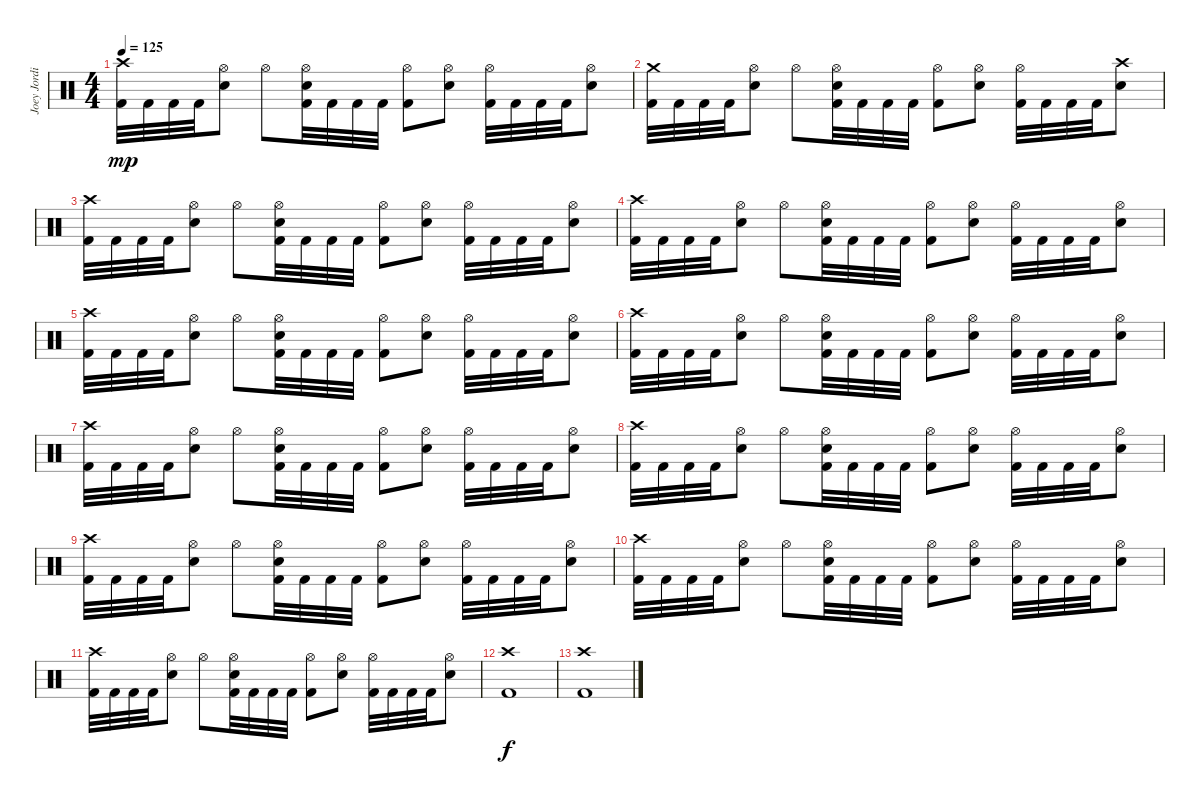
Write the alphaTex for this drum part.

\track ("Joey Jordison" "Joey Jordi") {instrument percussion}
\staff {score}
\articulation defaults
\ts (4 4)
\tempo 125
\clef neutral
\ks c
("Crash high (hit)" "Kick (hit) 2").32{dy mp} "Kick (hit) 2".32 "Kick (hit) 2".32 "Kick (hit) 2".32 ("Hi-Hat (open)" "Electric Snare (hit)").8 "Hi-Hat (open)".8 ("Hi-Hat (open)" "Electric Snare (hit)" "Kick (hit) 2").32 "Kick (hit) 2".32 "Kick (hit) 2".32 "Kick (hit) 2".32 ("Hi-Hat (open)" "Kick (hit) 2").8 ("Hi-Hat (open)" "Electric Snare (hit)").8 ("Hi-Hat (open)" "Kick (hit) 2").32 "Kick (hit) 2".32 "Kick (hit) 2".32 "Kick (hit) 2".32 ("Hi-Hat (open)" "Electric Snare (hit)").8 |
("Crash medium (hit)" "Kick (hit) 2").32 "Kick (hit) 2".32 "Kick (hit) 2".32 "Kick (hit) 2".32 ("Hi-Hat (open)" "Electric Snare (hit)").8 "Hi-Hat (open)".8 ("Hi-Hat (open)" "Electric Snare (hit)" "Kick (hit) 2").32 "Kick (hit) 2".32 "Kick (hit) 2".32 "Kick (hit) 2".32 ("Hi-Hat (open)" "Kick (hit) 2").8 ("Hi-Hat (open)" "Electric Snare (hit)").8 ("Hi-Hat (open)" "Kick (hit) 2").32 "Kick (hit) 2".32 "Kick (hit) 2".32 "Kick (hit) 2".32 ("Crash high (hit)" "Electric Snare (hit)").8 |
("Crash high (hit)" "Kick (hit) 2").32 "Kick (hit) 2".32 "Kick (hit) 2".32 "Kick (hit) 2".32 ("Hi-Hat (open)" "Electric Snare (hit)").8 "Hi-Hat (open)".8 ("Hi-Hat (open)" "Electric Snare (hit)" "Kick (hit) 2").32 "Kick (hit) 2".32 "Kick (hit) 2".32 "Kick (hit) 2".32 ("Hi-Hat (open)" "Kick (hit) 2").8 ("Hi-Hat (open)" "Electric Snare (hit)").8 ("Hi-Hat (open)" "Kick (hit) 2").32 "Kick (hit) 2".32 "Kick (hit) 2".32 "Kick (hit) 2".32 ("Hi-Hat (open)" "Electric Snare (hit)").8 |
("Crash high (hit)" "Kick (hit) 2").32 "Kick (hit) 2".32 "Kick (hit) 2".32 "Kick (hit) 2".32 ("Hi-Hat (open)" "Electric Snare (hit)").8 "Hi-Hat (open)".8 ("Hi-Hat (open)" "Electric Snare (hit)" "Kick (hit) 2").32 "Kick (hit) 2".32 "Kick (hit) 2".32 "Kick (hit) 2".32 ("Hi-Hat (open)" "Kick (hit) 2").8 ("Hi-Hat (open)" "Electric Snare (hit)").8 ("Hi-Hat (open)" "Kick (hit) 2").32 "Kick (hit) 2".32 "Kick (hit) 2".32 "Kick (hit) 2".32 ("Hi-Hat (open)" "Electric Snare (hit)").8 |
("Crash high (hit)" "Kick (hit) 2").32 "Kick (hit) 2".32 "Kick (hit) 2".32 "Kick (hit) 2".32 ("Hi-Hat (open)" "Electric Snare (hit)").8 "Hi-Hat (open)".8 ("Hi-Hat (open)" "Electric Snare (hit)" "Kick (hit) 2").32 "Kick (hit) 2".32 "Kick (hit) 2".32 "Kick (hit) 2".32 ("Hi-Hat (open)" "Kick (hit) 2").8 ("Hi-Hat (open)" "Electric Snare (hit)").8 ("Hi-Hat (open)" "Kick (hit) 2").32 "Kick (hit) 2".32 "Kick (hit) 2".32 "Kick (hit) 2".32 ("Hi-Hat (open)" "Electric Snare (hit)").8 |
("Crash high (hit)" "Kick (hit) 2").32 "Kick (hit) 2".32 "Kick (hit) 2".32 "Kick (hit) 2".32 ("Hi-Hat (open)" "Electric Snare (hit)").8 "Hi-Hat (open)".8 ("Hi-Hat (open)" "Electric Snare (hit)" "Kick (hit) 2").32 "Kick (hit) 2".32 "Kick (hit) 2".32 "Kick (hit) 2".32 ("Hi-Hat (open)" "Kick (hit) 2").8 ("Hi-Hat (open)" "Electric Snare (hit)").8 ("Hi-Hat (open)" "Kick (hit) 2").32 "Kick (hit) 2".32 "Kick (hit) 2".32 "Kick (hit) 2".32 ("Hi-Hat (open)" "Electric Snare (hit)").8 |
("Crash high (hit)" "Kick (hit) 2").32 "Kick (hit) 2".32 "Kick (hit) 2".32 "Kick (hit) 2".32 ("Hi-Hat (open)" "Electric Snare (hit)").8 "Hi-Hat (open)".8 ("Hi-Hat (open)" "Electric Snare (hit)" "Kick (hit) 2").32 "Kick (hit) 2".32 "Kick (hit) 2".32 "Kick (hit) 2".32 ("Hi-Hat (open)" "Kick (hit) 2").8 ("Hi-Hat (open)" "Electric Snare (hit)").8 ("Hi-Hat (open)" "Kick (hit) 2").32 "Kick (hit) 2".32 "Kick (hit) 2".32 "Kick (hit) 2".32 ("Hi-Hat (open)" "Electric Snare (hit)").8 |
("Crash high (hit)" "Kick (hit) 2").32 "Kick (hit) 2".32 "Kick (hit) 2".32 "Kick (hit) 2".32 ("Hi-Hat (open)" "Electric Snare (hit)").8 "Hi-Hat (open)".8 ("Hi-Hat (open)" "Electric Snare (hit)" "Kick (hit) 2").32 "Kick (hit) 2".32 "Kick (hit) 2".32 "Kick (hit) 2".32 ("Hi-Hat (open)" "Kick (hit) 2").8 ("Hi-Hat (open)" "Electric Snare (hit)").8 ("Hi-Hat (open)" "Kick (hit) 2").32 "Kick (hit) 2".32 "Kick (hit) 2".32 "Kick (hit) 2".32 ("Hi-Hat (open)" "Electric Snare (hit)").8 |
("Crash high (hit)" "Kick (hit) 2").32 "Kick (hit) 2".32 "Kick (hit) 2".32 "Kick (hit) 2".32 ("Hi-Hat (open)" "Electric Snare (hit)").8 "Hi-Hat (open)".8 ("Hi-Hat (open)" "Electric Snare (hit)" "Kick (hit) 2").32 "Kick (hit) 2".32 "Kick (hit) 2".32 "Kick (hit) 2".32 ("Hi-Hat (open)" "Kick (hit) 2").8 ("Hi-Hat (open)" "Electric Snare (hit)").8 ("Hi-Hat (open)" "Kick (hit) 2").32 "Kick (hit) 2".32 "Kick (hit) 2".32 "Kick (hit) 2".32 ("Hi-Hat (open)" "Electric Snare (hit)").8 |
("Crash high (hit)" "Kick (hit) 2").32 "Kick (hit) 2".32 "Kick (hit) 2".32 "Kick (hit) 2".32 ("Hi-Hat (open)" "Electric Snare (hit)").8 "Hi-Hat (open)".8 ("Hi-Hat (open)" "Electric Snare (hit)" "Kick (hit) 2").32 "Kick (hit) 2".32 "Kick (hit) 2".32 "Kick (hit) 2".32 ("Hi-Hat (open)" "Kick (hit) 2").8 ("Hi-Hat (open)" "Electric Snare (hit)").8 ("Hi-Hat (open)" "Kick (hit) 2").32 "Kick (hit) 2".32 "Kick (hit) 2".32 "Kick (hit) 2".32 ("Hi-Hat (open)" "Electric Snare (hit)").8 |
("Crash high (hit)" "Kick (hit) 2").32 "Kick (hit) 2".32 "Kick (hit) 2".32 "Kick (hit) 2".32 ("Hi-Hat (open)" "Electric Snare (hit)").8 "Hi-Hat (open)".8 ("Hi-Hat (open)" "Electric Snare (hit)" "Kick (hit) 2").32 "Kick (hit) 2".32 "Kick (hit) 2".32 "Kick (hit) 2".32 ("Hi-Hat (open)" "Kick (hit) 2").8 ("Hi-Hat (open)" "Electric Snare (hit)").8 ("Hi-Hat (open)" "Kick (hit) 2").32 "Kick (hit) 2".32 "Kick (hit) 2".32 "Kick (hit) 2".32 ("Hi-Hat (open)" "Electric Snare (hit)").8 |
("Crash high (hit)" "Kick (hit) 2").1{dy f} |
("Crash high (hit)" "Kick (hit) 2").1
